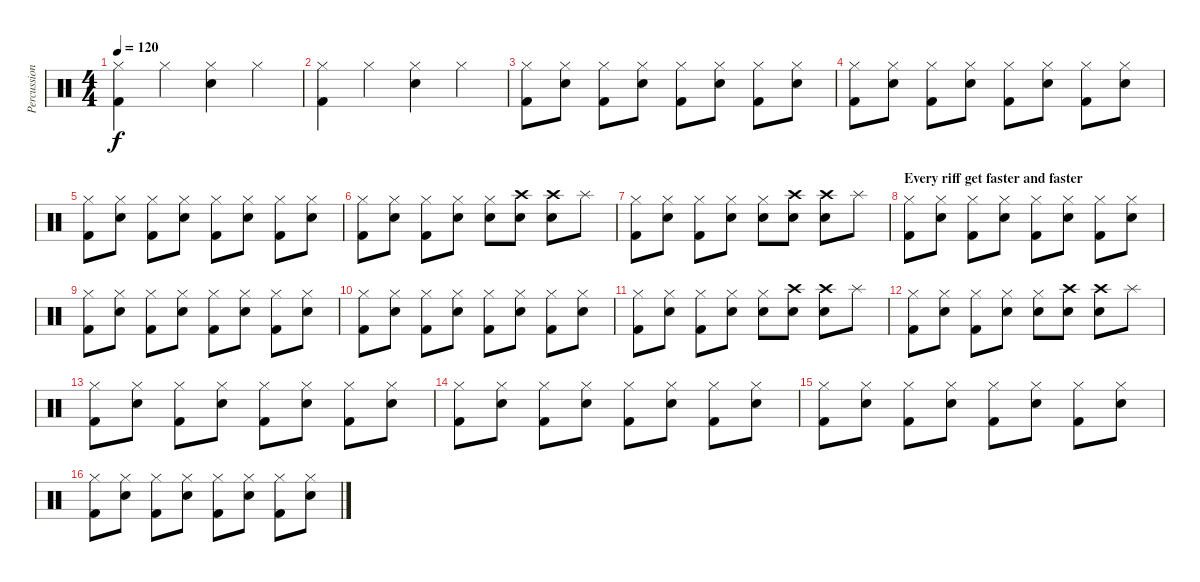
\track ("Percussion" "Percussion") {instrument percussion}
\staff {score}
\articulation defaults
\ts (4 4)
\tempo 120
\clef neutral
\ks c
("Kick (hit) 2" "Hi-Hat (closed)").4{dy f} "Hi-Hat (closed)".4 ("Snare (hit) 2" "Hi-Hat (closed)").4 "Hi-Hat (closed)".4 |
("Kick (hit) 2" "Hi-Hat (closed)").4 "Hi-Hat (closed)".4 ("Snare (hit) 2" "Hi-Hat (closed)").4 "Hi-Hat (closed)".4 |
("Kick (hit) 2" "Hi-Hat (closed)").8 ("Snare (hit) 2" "Hi-Hat (closed)").8 ("Kick (hit) 2" "Hi-Hat (closed)").8 ("Snare (hit) 2" "Hi-Hat (closed)").8 ("Kick (hit) 2" "Hi-Hat (closed)").8 ("Snare (hit) 2" "Hi-Hat (closed)").8 ("Kick (hit) 2" "Hi-Hat (closed)").8 ("Snare (hit) 2" "Hi-Hat (closed)").8 |
("Kick (hit) 2" "Hi-Hat (closed)").8 ("Snare (hit) 2" "Hi-Hat (closed)").8 ("Kick (hit) 2" "Hi-Hat (closed)").8 ("Snare (hit) 2" "Hi-Hat (closed)").8 ("Kick (hit) 2" "Hi-Hat (closed)").8 ("Snare (hit) 2" "Hi-Hat (closed)").8 ("Kick (hit) 2" "Hi-Hat (closed)").8 ("Snare (hit) 2" "Hi-Hat (closed)").8 |
("Kick (hit) 2" "Hi-Hat (closed)").8 ("Snare (hit) 2" "Hi-Hat (closed)").8 ("Kick (hit) 2" "Hi-Hat (closed)").8 ("Snare (hit) 2" "Hi-Hat (closed)").8 ("Kick (hit) 2" "Hi-Hat (closed)").8 ("Snare (hit) 2" "Hi-Hat (closed)").8 ("Kick (hit) 2" "Hi-Hat (closed)").8 ("Snare (hit) 2" "Hi-Hat (closed)").8 |
("Kick (hit) 2" "Hi-Hat (closed)").8 ("Snare (hit) 2" "Hi-Hat (closed)").8 ("Kick (hit) 2" "Hi-Hat (closed)").8 ("Snare (hit) 2" "Hi-Hat (closed)").8 ("Snare (hit) 2" "Hi-Hat (closed)").8 ("Snare (hit) 2" "Crash high (hit)").8 ("Snare (hit) 2" "Crash high (hit)").8 "Splash (hit)".8 |
("Kick (hit) 2" "Hi-Hat (closed)").8 ("Snare (hit) 2" "Hi-Hat (closed)").8 ("Kick (hit) 2" "Hi-Hat (closed)").8 ("Snare (hit) 2" "Hi-Hat (closed)").8 ("Snare (hit) 2" "Hi-Hat (closed)").8 ("Snare (hit) 2" "Crash high (hit)").8 ("Snare (hit) 2" "Crash high (hit)").8 "Splash (hit)".8 |
\section ("" "Every riff get faster and faster")
("Kick (hit) 2" "Hi-Hat (closed)").8 ("Snare (hit) 2" "Hi-Hat (closed)").8 ("Kick (hit) 2" "Hi-Hat (closed)").8 ("Snare (hit) 2" "Hi-Hat (closed)").8 ("Kick (hit) 2" "Hi-Hat (closed)").8 ("Snare (hit) 2" "Hi-Hat (closed)").8 ("Kick (hit) 2" "Hi-Hat (closed)").8 ("Snare (hit) 2" "Hi-Hat (closed)").8 |
("Kick (hit) 2" "Hi-Hat (closed)").8 ("Snare (hit) 2" "Hi-Hat (closed)").8 ("Kick (hit) 2" "Hi-Hat (closed)").8 ("Snare (hit) 2" "Hi-Hat (closed)").8 ("Kick (hit) 2" "Hi-Hat (closed)").8 ("Snare (hit) 2" "Hi-Hat (closed)").8 ("Kick (hit) 2" "Hi-Hat (closed)").8 ("Snare (hit) 2" "Hi-Hat (closed)").8 |
("Kick (hit) 2" "Hi-Hat (closed)").8 ("Snare (hit) 2" "Hi-Hat (closed)").8 ("Kick (hit) 2" "Hi-Hat (closed)").8 ("Snare (hit) 2" "Hi-Hat (closed)").8 ("Kick (hit) 2" "Hi-Hat (closed)").8 ("Snare (hit) 2" "Hi-Hat (closed)").8 ("Kick (hit) 2" "Hi-Hat (closed)").8 ("Snare (hit) 2" "Hi-Hat (closed)").8 |
("Kick (hit) 2" "Hi-Hat (closed)").8 ("Snare (hit) 2" "Hi-Hat (closed)").8 ("Kick (hit) 2" "Hi-Hat (closed)").8 ("Snare (hit) 2" "Hi-Hat (closed)").8 ("Snare (hit) 2" "Hi-Hat (closed)").8 ("Snare (hit) 2" "Crash high (hit)").8 ("Snare (hit) 2" "Crash high (hit)").8 "Splash (hit)".8 |
("Kick (hit) 2" "Hi-Hat (closed)").8 ("Snare (hit) 2" "Hi-Hat (closed)").8 ("Kick (hit) 2" "Hi-Hat (closed)").8 ("Snare (hit) 2" "Hi-Hat (closed)").8 ("Snare (hit) 2" "Hi-Hat (closed)").8 ("Snare (hit) 2" "Crash high (hit)").8 ("Snare (hit) 2" "Crash high (hit)").8 "Splash (hit)".8 |
("Kick (hit) 2" "Hi-Hat (closed)").8 ("Snare (hit) 2" "Hi-Hat (closed)").8 ("Kick (hit) 2" "Hi-Hat (closed)").8 ("Snare (hit) 2" "Hi-Hat (closed)").8 ("Kick (hit) 2" "Hi-Hat (closed)").8 ("Snare (hit) 2" "Hi-Hat (closed)").8 ("Kick (hit) 2" "Hi-Hat (closed)").8 ("Snare (hit) 2" "Hi-Hat (closed)").8 |
("Kick (hit) 2" "Hi-Hat (closed)").8 ("Snare (hit) 2" "Hi-Hat (closed)").8 ("Kick (hit) 2" "Hi-Hat (closed)").8 ("Snare (hit) 2" "Hi-Hat (closed)").8 ("Kick (hit) 2" "Hi-Hat (closed)").8 ("Snare (hit) 2" "Hi-Hat (closed)").8 ("Kick (hit) 2" "Hi-Hat (closed)").8 ("Snare (hit) 2" "Hi-Hat (closed)").8 |
("Kick (hit) 2" "Hi-Hat (closed)").8 ("Snare (hit) 2" "Hi-Hat (closed)").8 ("Kick (hit) 2" "Hi-Hat (closed)").8 ("Snare (hit) 2" "Hi-Hat (closed)").8 ("Kick (hit) 2" "Hi-Hat (closed)").8 ("Snare (hit) 2" "Hi-Hat (closed)").8 ("Kick (hit) 2" "Hi-Hat (closed)").8 ("Snare (hit) 2" "Hi-Hat (closed)").8 |
("Kick (hit) 2" "Hi-Hat (closed)").8 ("Snare (hit) 2" "Hi-Hat (closed)").8 ("Kick (hit) 2" "Hi-Hat (closed)").8 ("Snare (hit) 2" "Hi-Hat (closed)").8 ("Kick (hit) 2" "Hi-Hat (closed)").8 ("Snare (hit) 2" "Hi-Hat (closed)").8 ("Kick (hit) 2" "Hi-Hat (closed)").8 ("Snare (hit) 2" "Hi-Hat (closed)").8
